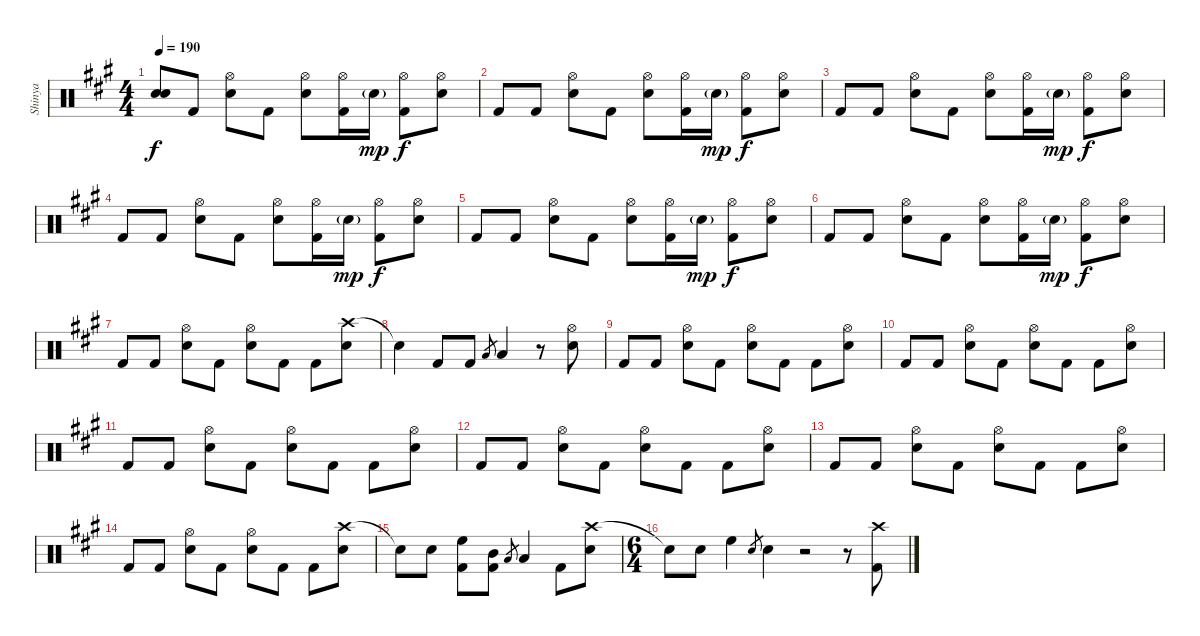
\track ("Shinya" "Shinya") {instrument percussion}
\staff {score}
\articulation defaults
\ts (4 4)
\tempo 190
\clef neutral
\ks a
("Snare (hit)"{t} "Snare (hit) 2").8{dy f} "Kick (hit) 2".8 ("Hi-Hat (open)" "Snare (hit) 2").8 "Kick (hit) 2".8 ("Hi-Hat (open)" "Snare (hit) 2").8 ("Hi-Hat (open)" "Kick (hit) 2").16 "Snare (hit) 2"{g}.16{dy mp} ("Hi-Hat (open)" "Kick (hit) 2").8{dy f} ("Hi-Hat (open)" "Snare (hit) 2").8 |
"Kick (hit) 2".8 "Kick (hit) 2".8 ("Hi-Hat (open)" "Snare (hit) 2").8 "Kick (hit) 2".8 ("Hi-Hat (open)" "Snare (hit) 2").8 ("Hi-Hat (open)" "Kick (hit) 2").16 "Snare (hit) 2"{g}.16{dy mp} ("Hi-Hat (open)" "Kick (hit) 2").8{dy f} ("Hi-Hat (open)" "Snare (hit) 2").8 |
"Kick (hit) 2".8 "Kick (hit) 2".8 ("Hi-Hat (open)" "Snare (hit) 2").8 "Kick (hit) 2".8 ("Hi-Hat (open)" "Snare (hit) 2").8 ("Hi-Hat (open)" "Kick (hit) 2").16 "Snare (hit) 2"{g}.16{dy mp} ("Hi-Hat (open)" "Kick (hit) 2").8{dy f} ("Hi-Hat (open)" "Snare (hit) 2").8 |
"Kick (hit) 2".8 "Kick (hit) 2".8 ("Hi-Hat (open)" "Snare (hit) 2").8 "Kick (hit) 2".8 ("Hi-Hat (open)" "Snare (hit) 2").8 ("Hi-Hat (open)" "Kick (hit) 2").16 "Snare (hit) 2"{g}.16{dy mp} ("Hi-Hat (open)" "Kick (hit) 2").8{dy f} ("Hi-Hat (open)" "Snare (hit) 2").8 |
"Kick (hit) 2".8 "Kick (hit) 2".8 ("Hi-Hat (open)" "Snare (hit) 2").8 "Kick (hit) 2".8 ("Hi-Hat (open)" "Snare (hit) 2").8 ("Hi-Hat (open)" "Kick (hit) 2").16 "Snare (hit) 2"{g}.16{dy mp} ("Hi-Hat (open)" "Kick (hit) 2").8{dy f} ("Hi-Hat (open)" "Snare (hit) 2").8 |
"Kick (hit) 2".8 "Kick (hit) 2".8 ("Hi-Hat (open)" "Snare (hit) 2").8 "Kick (hit) 2".8 ("Hi-Hat (open)" "Snare (hit) 2").8 ("Hi-Hat (open)" "Kick (hit) 2").16 "Snare (hit) 2"{g}.16{dy mp} ("Hi-Hat (open)" "Kick (hit) 2").8{dy f} ("Hi-Hat (open)" "Snare (hit) 2").8 |
"Kick (hit) 2".8 "Kick (hit) 2".8 ("Hi-Hat (open)" "Snare (hit) 2").8 "Kick (hit) 2".8 ("Hi-Hat (open)" "Snare (hit) 2").8 "Kick (hit) 2".8 "Kick (hit) 2".8 ("Crash high (hit)" "Snare (hit) 2").8 |
"Snare (hit)"{t}.4 "Kick (hit) 2".8 "Kick (hit) 2".8 "Low Tom (hit)".8{gr} "Low Tom (hit)".4 r.8 ("Hi-Hat (open)" "Snare (hit) 2").8 |
"Kick (hit) 2".8 "Kick (hit) 2".8 ("Hi-Hat (open)" "Snare (hit) 2").8 "Kick (hit) 2".8 ("Hi-Hat (open)" "Snare (hit) 2").8 "Kick (hit) 2".8 "Kick (hit) 2".8 ("Hi-Hat (open)" "Snare (hit) 2").8 |
"Kick (hit) 2".8 "Kick (hit) 2".8 ("Hi-Hat (open)" "Snare (hit) 2").8 "Kick (hit) 2".8 ("Hi-Hat (open)" "Snare (hit) 2").8 "Kick (hit) 2".8 "Kick (hit) 2".8 ("Hi-Hat (open)" "Snare (hit) 2").8 |
"Kick (hit) 2".8 "Kick (hit) 2".8 ("Hi-Hat (open)" "Snare (hit) 2").8 "Kick (hit) 2".8 ("Hi-Hat (open)" "Snare (hit) 2").8 "Kick (hit) 2".8 "Kick (hit) 2".8 ("Hi-Hat (open)" "Snare (hit) 2").8 |
"Kick (hit) 2".8 "Kick (hit) 2".8 ("Hi-Hat (open)" "Snare (hit) 2").8 "Kick (hit) 2".8 ("Hi-Hat (open)" "Snare (hit) 2").8 "Kick (hit) 2".8 "Kick (hit) 2".8 ("Hi-Hat (open)" "Snare (hit) 2").8 |
"Kick (hit) 2".8 "Kick (hit) 2".8 ("Hi-Hat (open)" "Snare (hit) 2").8 "Kick (hit) 2".8 ("Hi-Hat (open)" "Snare (hit) 2").8 "Kick (hit) 2".8 "Kick (hit) 2".8 ("Hi-Hat (open)" "Snare (hit) 2").8 |
"Kick (hit) 2".8 "Kick (hit) 2".8 ("Hi-Hat (open)" "Snare (hit) 2").8 "Kick (hit) 2".8 ("Hi-Hat (open)" "Snare (hit) 2").8 "Kick (hit) 2".8 "Kick (hit) 2".8 ("Crash high (hit)" "Snare (hit) 2").8 |
"Snare (hit)"{t}.8 "Snare (hit) 2".8 ("High Floor Tom (hit)" "Kick (hit) 2").8 ("Mid Tom (hit)" "Kick (hit) 2").8 "Low Tom (hit)".8{gr} "Low Tom (hit)".4 "Kick (hit) 2".8 ("Crash high (hit)" "Snare (hit) 2").8 |
\ts (6 4)
"Snare (hit)"{t}.8 "Snare (hit) 2".8 "High Floor Tom (hit)".4 "Snare (hit) 2".8{gr} "Snare (hit) 2".4 r.2 r.8 ("Crash high (hit)" "Kick (hit) 2").8
